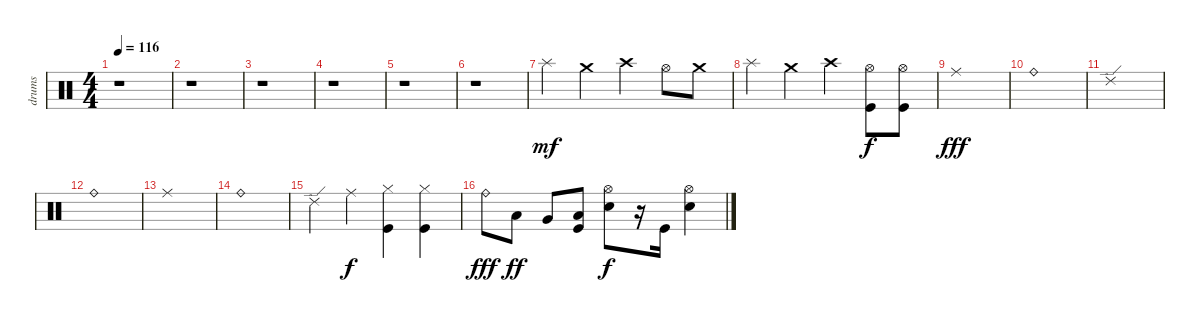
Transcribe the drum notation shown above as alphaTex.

\track ("drums" "drums") {instrument percussion}
\staff {score}
\articulation defaults
\ts (4 4)
\tempo 116
\clef neutral
\ks c
r.1{dy f} |
r.1 |
r.1 |
r.1 |
r.1 |
r.1 |
"Splash (hit)".4{dy mf} "Crash medium (hit)".4 "Crash high (hit)".4 "Hi-Hat (open)".8 "Crash medium (hit)".8 |
"Splash (hit)".4 "Crash medium (hit)".4 "Crash high (hit)".4 ("Hi-Hat (open)" "Kick (hit)").8{dy f} ("Hi-Hat (open)" "Kick (hit)").8 |
"Ride (middle)".1{dy fff} |
"Ride (bell)".1 |
"Ride (edge) 2".1 |
"Ride (bell)".1 |
"Ride (middle)".1 |
"Ride (bell)".1 |
"Ride (edge) 2".4 "Ride (middle)".4{dy f} ("Hi-Hat (closed)" "Kick (hit)").4 ("Hi-Hat (closed)" "Kick (hit)").4 |
"Ride (bell)".8{dy fff} "Low Tom (hit)".8{dy ff} "Very Low Tom (hit)".8 ("Low Floor Tom (hit)" "Kick (hit)").8 ("Hi-Hat (open)" "Electric Snare (hit)").8{dy f} r.16 "Kick (hit)".16 ("Hi-Hat (open)" "Electric Snare (hit)").4
